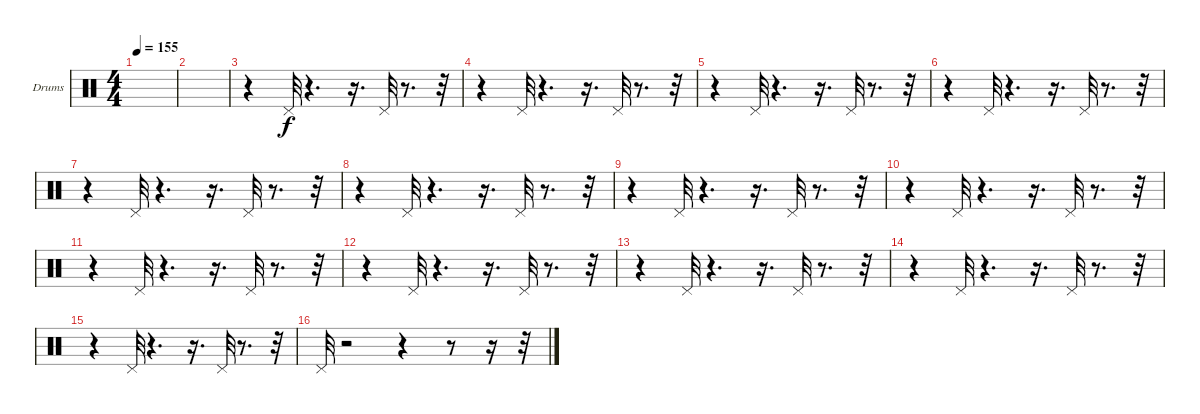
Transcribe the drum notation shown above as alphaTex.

\bracketExtendMode groupsimilarinstruments
\firstSystemTrackNameOrientation horizontal
\otherSystemsTrackNameOrientation horizontal
\track ("Е. Кулаков" "Drums") {instrument percussion}
\staff {score}
\articulation defaults
\ts (4 4)
\tempo 155
\clef neutral
\ks c
|
|
r.4 "Pedal Hi-Hat (hit)".32 r.4{d} r.16{d} "Pedal Hi-Hat (hit)".32 r.8{d} r.32 |
r.4 "Pedal Hi-Hat (hit)".32 r.4{d} r.16{d} "Pedal Hi-Hat (hit)".32 r.8{d} r.32 |
r.4 "Pedal Hi-Hat (hit)".32 r.4{d} r.16{d} "Pedal Hi-Hat (hit)".32 r.8{d} r.32 |
r.4 "Pedal Hi-Hat (hit)".32 r.4{d} r.16{d} "Pedal Hi-Hat (hit)".32 r.8{d} r.32 |
r.4 "Pedal Hi-Hat (hit)".32 r.4{d} r.16{d} "Pedal Hi-Hat (hit)".32 r.8{d} r.32 |
r.4 "Pedal Hi-Hat (hit)".32 r.4{d} r.16{d} "Pedal Hi-Hat (hit)".32 r.8{d} r.32 |
r.4 "Pedal Hi-Hat (hit)".32 r.4{d} r.16{d} "Pedal Hi-Hat (hit)".32 r.8{d} r.32 |
r.4 "Pedal Hi-Hat (hit)".32 r.4{d} r.16{d} "Pedal Hi-Hat (hit)".32 r.8{d} r.32 |
r.4 "Pedal Hi-Hat (hit)".32 r.4{d} r.16{d} "Pedal Hi-Hat (hit)".32 r.8{d} r.32 |
r.4 "Pedal Hi-Hat (hit)".32 r.4{d} r.16{d} "Pedal Hi-Hat (hit)".32 r.8{d} r.32 |
r.4 "Pedal Hi-Hat (hit)".32 r.4{d} r.16{d} "Pedal Hi-Hat (hit)".32 r.8{d} r.32 |
r.4 "Pedal Hi-Hat (hit)".32 r.4{d} r.16{d} "Pedal Hi-Hat (hit)".32 r.8{d} r.32 |
r.4 "Pedal Hi-Hat (hit)".32 r.4{d} r.16{d} "Pedal Hi-Hat (hit)".32 r.8{d} r.32 |
"Pedal Hi-Hat (hit)".32 r.2 r.4 r.8 r.16 r.32
